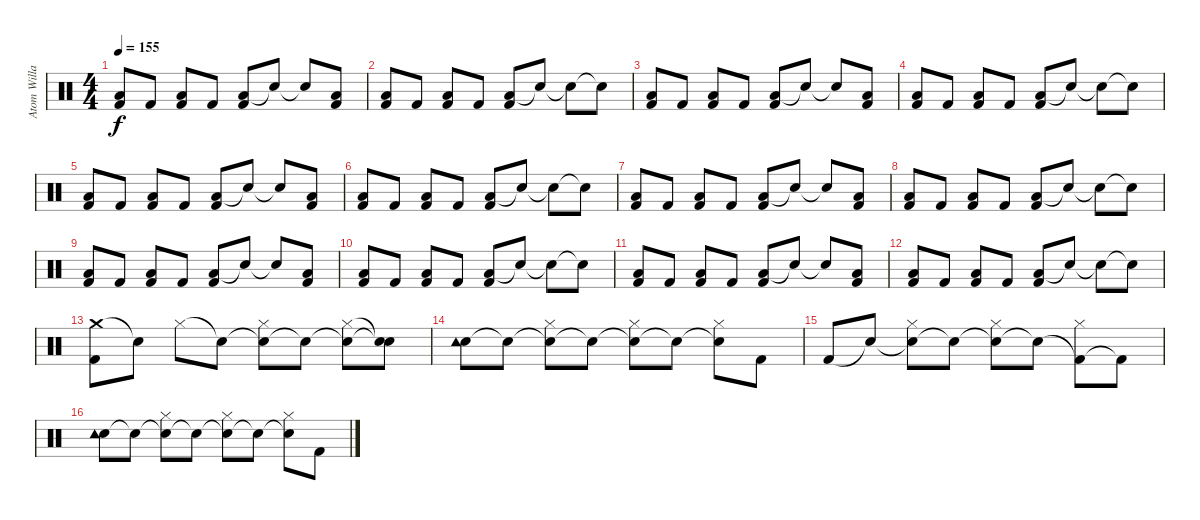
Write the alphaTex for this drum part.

\track ("Atom Willard - Drums" "Atom Willa") {instrument percussion}
\staff {score}
\articulation defaults
\ts (4 4)
\tempo 155
\clef neutral
\ks c
("Low Tom (hit)" "Kick (hit) 2").8{dy f} "Kick (hit) 2".8 ("Low Tom (hit)" "Kick (hit) 2").8 "Kick (hit) 2".8 ("Low Tom (hit)" "Kick (hit) 2").8 "Snare (hit)"{t}.8 "Snare (hit)"{t}.8 ("Low Tom (hit)" "Kick (hit) 2").8 |
("Low Tom (hit)" "Kick (hit) 2").8 "Kick (hit) 2".8 ("Low Tom (hit)" "Kick (hit) 2").8 "Kick (hit) 2".8 ("Low Tom (hit)" "Kick (hit) 2").8 "Snare (hit)"{t}.8 "Snare (hit)"{t}.8 "Snare (hit)"{t}.8 |
("Low Tom (hit)" "Kick (hit) 2").8 "Kick (hit) 2".8 ("Low Tom (hit)" "Kick (hit) 2").8 "Kick (hit) 2".8 ("Low Tom (hit)" "Kick (hit) 2").8 "Snare (hit)"{t}.8 "Snare (hit)"{t}.8 ("Low Tom (hit)" "Kick (hit) 2").8 |
("Low Tom (hit)" "Kick (hit) 2").8 "Kick (hit) 2".8 ("Low Tom (hit)" "Kick (hit) 2").8 "Kick (hit) 2".8 ("Low Tom (hit)" "Kick (hit) 2").8 "Snare (hit)"{t}.8 "Snare (hit)"{t}.8 "Snare (hit)"{t}.8 |
("Low Tom (hit)" "Kick (hit) 2").8 "Kick (hit) 2".8 ("Low Tom (hit)" "Kick (hit) 2").8 "Kick (hit) 2".8 ("Low Tom (hit)" "Kick (hit) 2").8 "Snare (hit)"{t}.8 "Snare (hit)"{t}.8 ("Low Tom (hit)" "Kick (hit) 2").8 |
("Low Tom (hit)" "Kick (hit) 2").8 "Kick (hit) 2".8 ("Low Tom (hit)" "Kick (hit) 2").8 "Kick (hit) 2".8 ("Low Tom (hit)" "Kick (hit) 2").8 "Snare (hit)"{t}.8 "Snare (hit)"{t}.8 "Snare (hit)"{t}.8 |
("Low Tom (hit)" "Kick (hit) 2").8 "Kick (hit) 2".8 ("Low Tom (hit)" "Kick (hit) 2").8 "Kick (hit) 2".8 ("Low Tom (hit)" "Kick (hit) 2").8 "Snare (hit)"{t}.8 "Snare (hit)"{t}.8 ("Low Tom (hit)" "Kick (hit) 2").8 |
("Low Tom (hit)" "Kick (hit) 2").8 "Kick (hit) 2".8 ("Low Tom (hit)" "Kick (hit) 2").8 "Kick (hit) 2".8 ("Low Tom (hit)" "Kick (hit) 2").8 "Snare (hit)"{t}.8 "Snare (hit)"{t}.8 "Snare (hit)"{t}.8 |
("Low Tom (hit)" "Kick (hit) 2").8 "Kick (hit) 2".8 ("Low Tom (hit)" "Kick (hit) 2").8 "Kick (hit) 2".8 ("Low Tom (hit)" "Kick (hit) 2").8 "Snare (hit)"{t}.8 "Snare (hit)"{t}.8 ("Low Tom (hit)" "Kick (hit) 2").8 |
("Low Tom (hit)" "Kick (hit) 2").8 "Kick (hit) 2".8 ("Low Tom (hit)" "Kick (hit) 2").8 "Kick (hit) 2".8 ("Low Tom (hit)" "Kick (hit) 2").8 "Snare (hit)"{t}.8 "Snare (hit)"{t}.8 "Snare (hit)"{t}.8 |
("Low Tom (hit)" "Kick (hit) 2").8 "Kick (hit) 2".8 ("Low Tom (hit)" "Kick (hit) 2").8 "Kick (hit) 2".8 ("Low Tom (hit)" "Kick (hit) 2").8 "Snare (hit)"{t}.8 "Snare (hit)"{t}.8 ("Low Tom (hit)" "Kick (hit) 2").8 |
("Low Tom (hit)" "Kick (hit) 2").8 "Kick (hit) 2".8 ("Low Tom (hit)" "Kick (hit) 2").8 "Kick (hit) 2".8 ("Low Tom (hit)" "Kick (hit) 2").8 "Snare (hit)"{t}.8 "Snare (hit)"{t}.8 "Snare (hit)"{t}.8 |
("Crash medium (hit)" "Kick (hit) 2").8 "Snare (hit)"{t}.8 "Hi-Hat (closed)".8 "Snare (hit)"{t}.8 ("Snare (hit)"{t} "Hi-Hat (closed)").8 "Snare (hit)"{t}.8 ("Snare (hit)"{t} "Hi-Hat (closed)").8 ("Snare (hit)"{t} "Snare (hit)"{t}).8 |
("Hand Clap (hit)" "Tambourine (hit)").8 "Snare (hit)"{t}.8 ("Snare (hit)"{t} "Hi-Hat (closed)").8 "Snare (hit)"{t}.8 ("Snare (hit)"{t} "Hi-Hat (closed)").8 "Snare (hit)"{t}.8 ("Snare (hit)"{t} "Hi-Hat (closed)").8 "Kick (hit) 2".8 |
"Kick (hit) 2".8 "Snare (hit)"{t}.8 ("Snare (hit)"{t} "Hi-Hat (closed)").8 "Snare (hit)"{t}.8 ("Snare (hit)"{t} "Hi-Hat (closed)").8 "Snare (hit)"{t}.8 ("Kick (hit) 2"{t} "Hi-Hat (closed)").8 "Kick (hit) 2"{t}.8 |
("Hand Clap (hit)" "Tambourine (hit)").8 "Snare (hit)"{t}.8 ("Snare (hit)"{t} "Hi-Hat (closed)").8 "Snare (hit)"{t}.8 ("Snare (hit)"{t} "Hi-Hat (closed)").8 "Snare (hit)"{t}.8 ("Snare (hit)"{t} "Hi-Hat (closed)").8 "Kick (hit) 2".8
